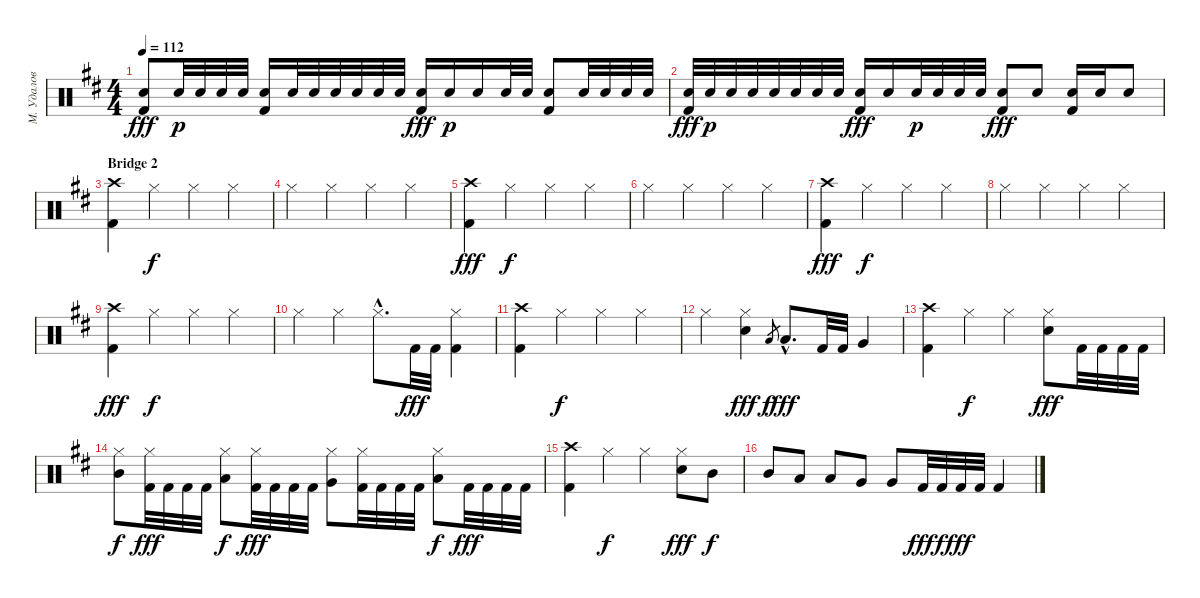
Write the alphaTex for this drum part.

\track ("М. Удалов" "М. Удалов") {instrument percussion}
\staff {score}
\articulation defaults
\ts (4 4)
\tempo 112
\clef neutral
\ks d
("Electric Snare (hit)" "Kick (hit) 2").8{dy fff} "Electric Snare (hit)".32{dy p} "Electric Snare (hit)".32 "Electric Snare (hit)".32 "Electric Snare (hit)".32 ("Electric Snare (hit)" "Kick (hit) 2").16 "Electric Snare (hit)".32 "Electric Snare (hit)".32 "Electric Snare (hit)".32 "Electric Snare (hit)".32 "Electric Snare (hit)".32 "Electric Snare (hit)".32 ("Electric Snare (hit)" "Kick (hit) 2").16{dy fff} "Electric Snare (hit)".16{dy p} "Electric Snare (hit)".16 "Electric Snare (hit)".32 "Electric Snare (hit)".32 ("Electric Snare (hit)" "Kick (hit) 2").8 "Electric Snare (hit)".32 "Electric Snare (hit)".32 "Electric Snare (hit)".32 "Electric Snare (hit)".32 |
("Electric Snare (hit)" "Kick (hit) 2").32{dy fff} "Electric Snare (hit)".32{dy p} "Electric Snare (hit)".32 "Electric Snare (hit)".32 "Electric Snare (hit)".32 "Electric Snare (hit)".32 "Electric Snare (hit)".32 "Electric Snare (hit)".32 ("Electric Snare (hit)" "Kick (hit) 2").16{dy fff} "Electric Snare (hit)".16 "Electric Snare (hit)".32{dy p} "Electric Snare (hit)".32 "Electric Snare (hit)".32 "Electric Snare (hit)".32 ("Electric Snare (hit)" "Kick (hit) 2").8{dy fff} "Electric Snare (hit)".8 ("Electric Snare (hit)" "Kick (hit) 2").16 "Electric Snare (hit)".16 "Electric Snare (hit)".8 |
\section ("" "Bridge 2")
("Crash high (hit)" "Kick (hit) 2").4 "Hi-Hat (closed)".4{dy f} "Hi-Hat (closed)".4 "Hi-Hat (closed)".4 |
"Hi-Hat (closed)".4 "Hi-Hat (closed)".4 "Hi-Hat (closed)".4 "Hi-Hat (closed)".4 |
("Crash high (hit)" "Kick (hit) 2").4{dy fff} "Hi-Hat (closed)".4{dy f} "Hi-Hat (closed)".4 "Hi-Hat (closed)".4 |
"Hi-Hat (closed)".4 "Hi-Hat (closed)".4 "Hi-Hat (closed)".4 "Hi-Hat (closed)".4 |
("Crash high (hit)" "Kick (hit) 2").4{dy fff} "Hi-Hat (closed)".4{dy f} "Hi-Hat (closed)".4 "Hi-Hat (closed)".4 |
"Hi-Hat (closed)".4 "Hi-Hat (closed)".4 "Hi-Hat (closed)".4 "Hi-Hat (closed)".4 |
("Crash high (hit)" "Kick (hit) 2").4{dy fff} "Hi-Hat (closed)".4{dy f} "Hi-Hat (closed)".4 "Hi-Hat (closed)".4 |
"Hi-Hat (closed)".4 "Hi-Hat (closed)".4 "Hi-Hat (closed)"{hac}.8{d} "Kick (hit) 2".32{dy fff} "Kick (hit) 2".32 ("Hi-Hat (closed)" "Kick (hit) 2").4 |
("Crash high (hit)" "Kick (hit) 2").4 "Hi-Hat (closed)".4{dy f} "Hi-Hat (closed)".4 "Hi-Hat (closed)".4 |
"Hi-Hat (closed)".4 ("Hi-Hat (closed)" "Electric Snare (hit)").4{dy fff} "Low Tom (hit)".8{gr dy f} "Low Tom (hit)"{hac}.8{d dy fff} "Kick (hit) 2".32 "Kick (hit) 2".32 "Very Low Tom (hit)".4 |
("Crash high (hit)" "Kick (hit) 2").4 "Hi-Hat (closed)".4{dy f} "Hi-Hat (closed)".4 ("Hi-Hat (closed)" "Electric Snare (hit)").8{dy fff} "Kick (hit) 2".32 "Kick (hit) 2".32 "Kick (hit) 2".32 "Kick (hit) 2".32 |
("Hi-Hat (closed)" "Mid Tom (hit)").8{dy f} ("Hi-Hat (closed)" "Kick (hit) 2").32{dy fff} "Kick (hit) 2".32 "Kick (hit) 2".32 "Kick (hit) 2".32 ("Hi-Hat (closed)" "Low Tom (hit)").8{dy f} ("Hi-Hat (closed)" "Kick (hit) 2").32{dy fff} "Kick (hit) 2".32 "Kick (hit) 2".32 "Kick (hit) 2".32 ("Hi-Hat (closed)" "Very Low Tom (hit)").8 ("Hi-Hat (closed)" "Kick (hit) 2").32 "Kick (hit) 2".32 "Kick (hit) 2".32 "Kick (hit) 2".32 ("Hi-Hat (closed)" "Low Floor Tom (hit)").8{dy f} "Kick (hit) 2".32{dy fff} "Kick (hit) 2".32 "Kick (hit) 2".32 "Kick (hit) 2".32 |
("Crash high (hit)" "Kick (hit) 2").4 "Hi-Hat (closed)".4{dy f} "Hi-Hat (closed)".4 ("Hi-Hat (closed)" "Electric Snare (hit)").8{dy fff} "Mid Tom (hit)".8{dy f} |
"Mid Tom (hit)".8 "Low Tom (hit)".8 "Low Tom (hit)".8 "Very Low Tom (hit)".8 "Very Low Tom (hit)".8 "Kick (hit) 2".32{dy fff} "Kick (hit) 2".32{dy f} "Kick (hit) 2".32{dy fff} "Kick (hit) 2".32 "Kick (hit) 2".4
